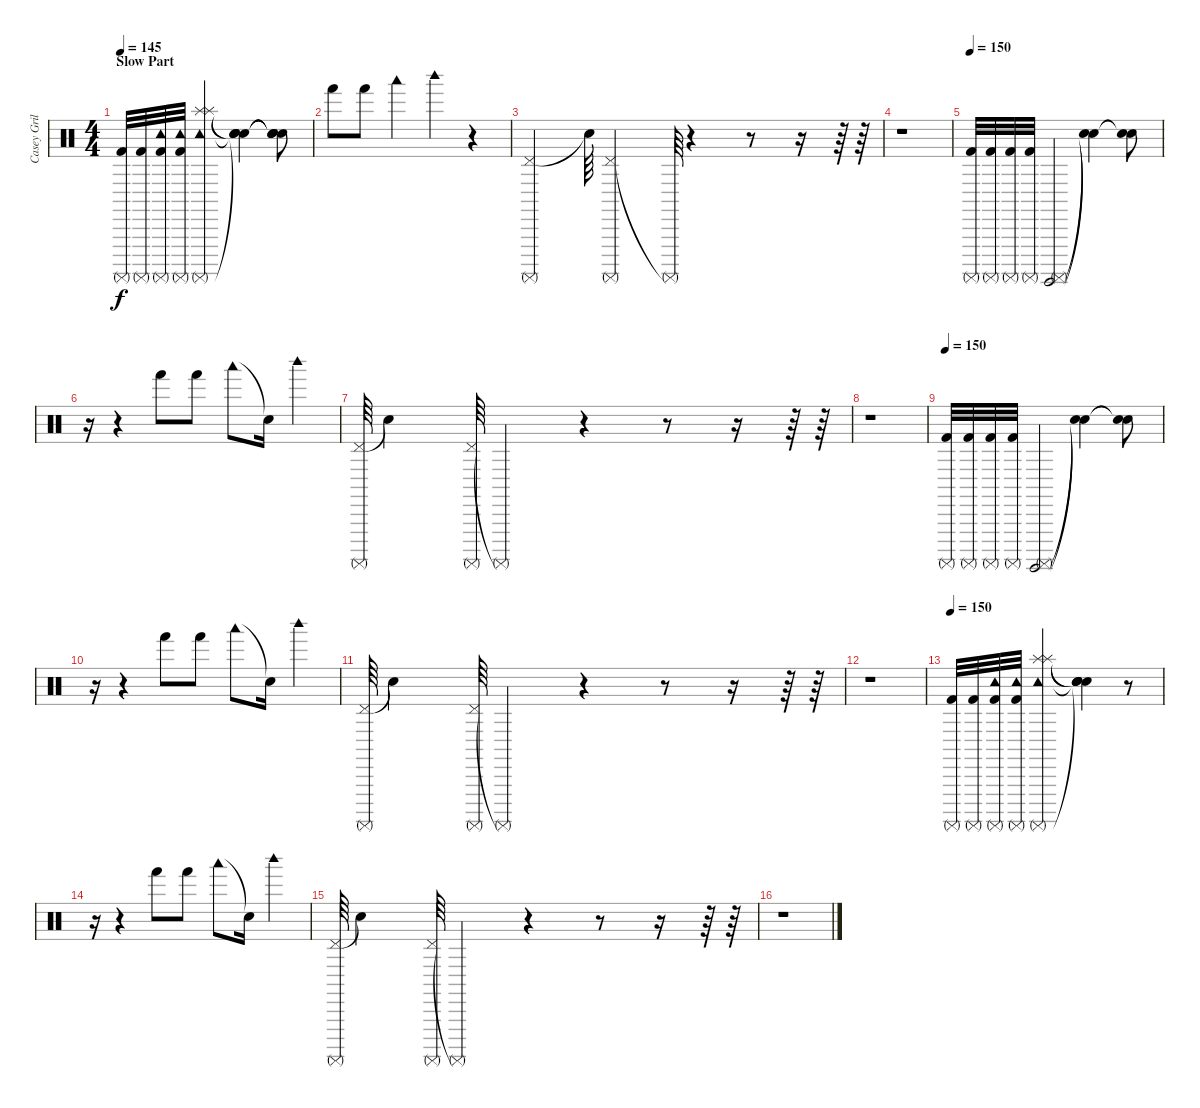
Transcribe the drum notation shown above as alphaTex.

\track ("Casey Grillo" "Casey Gril") {instrument percussion}
\staff {score}
\articulation defaults
\ts (4 4)
\section ("" "Slow Part")
\tempo 145
\clef neutral
\ks c
("Kick (hit) 2" "Surdo (mute)").32{dy f} ("Kick (hit) 2" "Surdo (mute)").32 ("Kick (hit) 2" "Tambourine (hit)" "Surdo (mute)").32 ("Kick (hit) 2" "Tambourine (hit)" "Surdo (mute)").32 ("Splash (hit)" "Splash (hit)" "Tambourine (hit)" "Surdo (mute)").2 ("Snare (hit)"{t} "Snare (hit)"{t} "Snare (hit)"{t} "Snare (hit)"{t}).4 ("Snare (hit)"{t} "Snare (hit)"{t} "Snare (hit)"{t} "Snare (hit)"{t}).8 |
"Hand (hit)".8 "Hand (hit)".8 "Woodblock low (hit)".4 "Woodblock high (hit)".4 r.4 |
("Pedal Hi-Hat (hit)" "Surdo (mute)").4 "Snare (hit)"{t}.64 ("Pedal Hi-Hat (hit)" "Surdo (mute)").4 "Surdo (mute)"{t}.64 r.4 r.8 r.16 r.64 r.64 |
r.1 |
\tempo 150
("Kick (hit) 2" "Surdo (mute)").32 ("Kick (hit) 2" "Surdo (mute)").32 ("Kick (hit) 2" "Surdo (mute)").32 ("Kick (hit) 2" "Surdo (mute)").32 ("Surdo (hit)" "Surdo (mute)").2 ("Snare (hit)"{t} "Snare (hit)"{t}).4 ("Snare (hit)"{t} "Snare (hit)"{t}).8 |
r.16 r.4 "Hand (hit)".8 "Hand (hit)".8 "Woodblock low (hit)".8 "Snare (hit)"{t}.16 "Woodblock high (hit)".4 |
("Pedal Hi-Hat (hit)" "Surdo (mute)").64 "Snare (hit)"{t}.4 ("Pedal Hi-Hat (hit)" "Surdo (mute)").64 "Surdo (mute)"{t}.4 r.4 r.8 r.16 r.64 r.64 |
r.1 |
\tempo 150
("Kick (hit) 2" "Surdo (mute)").32 ("Kick (hit) 2" "Surdo (mute)").32 ("Kick (hit) 2" "Surdo (mute)").32 ("Kick (hit) 2" "Surdo (mute)").32 ("Surdo (hit)" "Surdo (mute)").2 ("Snare (hit)"{t} "Snare (hit)"{t}).4 ("Snare (hit)"{t} "Snare (hit)"{t}).8 |
r.16 r.4 "Hand (hit)".8 "Hand (hit)".8 "Woodblock low (hit)".8 "Snare (hit)"{t}.16 "Woodblock high (hit)".4 |
("Pedal Hi-Hat (hit)" "Surdo (mute)").64 "Snare (hit)"{t}.4 ("Pedal Hi-Hat (hit)" "Surdo (mute)").64 "Surdo (mute)"{t}.4 r.4 r.8 r.16 r.64 r.64 |
r.1 |
\tempo 150
("Kick (hit) 2" "Surdo (mute)").32 ("Kick (hit) 2" "Surdo (mute)").32 ("Kick (hit) 2" "Tambourine (hit)" "Surdo (mute)").32 ("Kick (hit) 2" "Tambourine (hit)" "Surdo (mute)").32 ("Splash (hit)" "Splash (hit)" "Tambourine (hit)" "Surdo (mute)").2 ("Snare (hit)"{t} "Snare (hit)"{t} "Snare (hit)"{t} "Snare (hit)"{t}).4 r.8 |
r.16 r.4 "Hand (hit)".8 "Hand (hit)".8 "Woodblock low (hit)".8 "Snare (hit)"{t}.16 "Woodblock high (hit)".4 |
("Pedal Hi-Hat (hit)" "Surdo (mute)").64 "Snare (hit)"{t}.4 ("Pedal Hi-Hat (hit)" "Surdo (mute)").64 "Surdo (mute)"{t}.4 r.4 r.8 r.16 r.64 r.64 |
r.1
